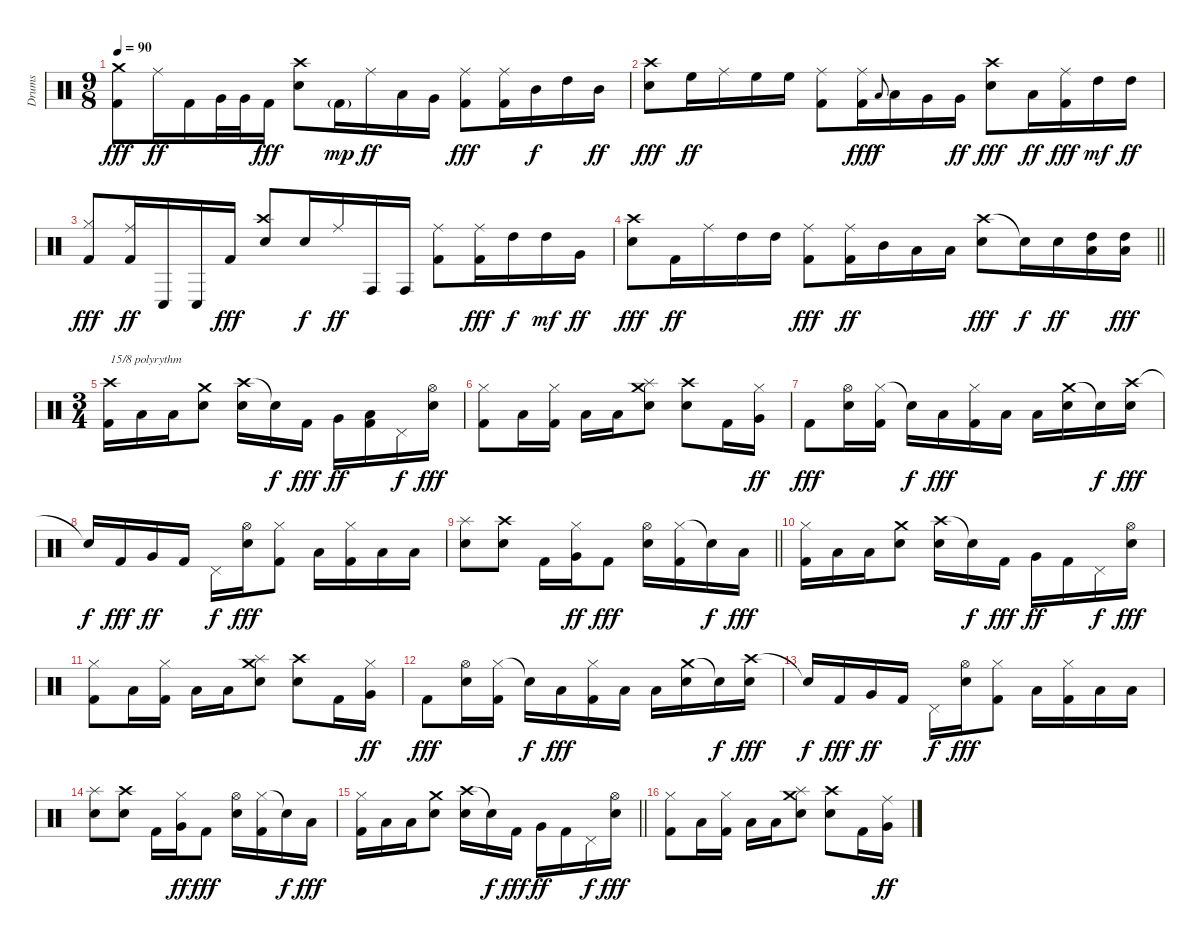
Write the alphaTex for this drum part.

\track ("Drums" "Drums") {instrument percussion}
\staff {score}
\articulation defaults
\ts (9 8)
\tempo 90
\clef neutral
\ks c
("Crash medium (hit)" "Kick (hit) 2").8{dy fff} "Ride (middle)".16{dy ff} "Kick (hit) 2".16 "Very Low Tom (hit)".32 "Very Low Tom (hit)".32 "Kick (hit) 2".16{dy fff} ("Crash high (hit)" "Snare (hit) 2").8 "Kick (hit) 2"{g}.16{dy mp} "Ride (middle)".16{dy ff} "Low Tom (hit)".16 "Very Low Tom (hit)".16 ("Ride (middle)" "Kick (hit) 2").8{dy fff} ("Ride (middle)" "Kick (hit) 2").16 "Mid Tom (hit)".16{dy f} "High Tom (hit)".16 "Mid Tom (hit)".16{dy ff} |
("Crash high (hit)" "Snare (hit) 2").8{dy fff} "High Floor Tom (hit)".16{dy ff} "Ride (middle)".16 "High Floor Tom (hit)".16 "High Floor Tom (hit)".16 ("Ride (middle)" "Kick (hit) 2").8 ("Ride (middle)" "Kick (hit) 2").16{dy fff} "Low Floor Tom (hit)".8{gr onbeat dy f} "Low Floor Tom (hit)".16 "Very Low Tom (hit)".16 "Very Low Tom (hit)".16{dy ff} ("Crash high (hit)" "Snare (hit) 2").8{dy fff} "Low Tom (hit)".16{dy ff} ("Ride (middle)" "Kick (hit) 2").16{dy fff} "High Tom (hit)".16{dy mf} "High Tom (hit)".16{dy ff} |
("Hi-Hat (closed)" "Kick (hit) 2").8{dy fff} ("Ride (middle)" "Kick (hit) 2").16{dy ff} "Conga low (hit)".16 "Conga low (hit)".16 "Kick (hit) 2".16{dy fff} ("Crash high (hit)" "Snare (hit) 2").8 "Snare (hit) 2".16{dy f} "Ride (middle)".16{dy ff} "Conga high (hit)".16 "Conga high (hit)".16 ("Ride (middle)" "Kick (hit) 2").8 ("Ride (middle)" "Kick (hit) 2").16{dy fff} "High Tom (hit)".16{dy f} "High Tom (hit)".16{dy mf} "Very Low Tom (hit)".16{dy ff} |
\barLineRight lightlight
("Crash high (hit)" "Snare (hit) 2").8{dy fff} "Kick (hit) 2".16{dy ff} "Ride (middle)".16 "High Tom (hit)".16 "High Tom (hit)".16 ("Ride (middle)" "Kick (hit) 2").8{dy fff} ("Ride (middle)" "Kick (hit) 2").16{dy ff} "Mid Tom (hit)".16 "Low Tom (hit)".16 "Low Tom (hit)".16 ("Crash high (hit)" "Snare (hit) 2").8{dy fff} "Snare (hit)"{t}.16{dy f} "Snare (hit) 2".16{dy ff} ("High Tom (hit)" "Low Tom (hit)").16 ("High Tom (hit)" "Low Tom (hit)").16{dy fff} |
\ts (3 4)
\section ("" "")
("Crash high (hit)" "Kick (hit) 2").16{txt "15/8 polyrythm"} "Low Tom (hit)".16 "Low Tom (hit)".16 ("Crash medium (hit)" "Snare (hit) 2").8 ("Crash high (hit)" "Snare (hit) 2").16 "Snare (hit)"{t}.16{dy f} "Kick (hit) 2".16{dy fff} "Very Low Tom (hit)".16{dy ff} ("Low Tom (hit)" "Kick (hit) 2").16 "Pedal Hi-Hat (hit)".16{dy f} ("Hi-Hat (open)" "Snare (hit) 2").16{dy fff} |
("Hi-Hat (closed)" "Kick (hit) 2").8 "Low Tom (hit)".16 ("Hi-Hat (closed)" "Kick (hit) 2").16 "Low Tom (hit)".16 "Low Tom (hit)".16 ("Crash medium (hit)" "Splash (hit)" "Snare (hit) 2").8 ("Crash high (hit)" "Snare (hit) 2").8 "Kick (hit) 2".16 ("Hi-Hat (closed)" "Very Low Tom (hit)").16{dy ff} |
"Kick (hit) 2".8{dy fff} ("Hi-Hat (open)" "Snare (hit) 2").16 ("Hi-Hat (closed)" "Kick (hit) 2").16 "Snare (hit)"{t}.16{dy f} "Low Tom (hit)".16{dy fff} ("Hi-Hat (closed)" "Kick (hit) 2").16 "Low Tom (hit)".16 "Low Tom (hit)".16 ("Crash medium (hit)" "Snare (hit) 2").16 "Snare (hit)"{t}.16{dy f} ("Crash high (hit)" "Snare (hit) 2").16{dy fff} |
"Snare (hit)"{t}.16{dy f} "Kick (hit) 2".16{dy fff} "Very Low Tom (hit)".16{dy ff} "Kick (hit) 2".16 "Pedal Hi-Hat (hit)".16{dy f} ("Hi-Hat (open)" "Snare (hit) 2").16{dy fff} ("Hi-Hat (closed)" "Kick (hit) 2").8 "Low Tom (hit)".16 ("Hi-Hat (closed)" "Kick (hit) 2").16 "Low Tom (hit)".16 "Low Tom (hit)".16 |
\barLineRight lightlight
("Splash (hit)" "Snare (hit) 2").8 ("Crash high (hit)" "Snare (hit) 2").8 "Kick (hit) 2".16 ("Hi-Hat (closed)" "Very Low Tom (hit)").16{dy ff} "Kick (hit) 2".8{dy fff} ("Hi-Hat (open)" "Snare (hit) 2").16 ("Hi-Hat (closed)" "Kick (hit) 2").16 "Snare (hit)"{t}.16{dy f} "Low Tom (hit)".16{dy fff} |
("Hi-Hat (closed)" "Kick (hit) 2").16 "Low Tom (hit)".16 "Low Tom (hit)".16 ("Crash medium (hit)" "Snare (hit) 2").8 ("Crash high (hit)" "Snare (hit) 2").16 "Snare (hit)"{t}.16{dy f} "Kick (hit) 2".16{dy fff} "Very Low Tom (hit)".16{dy ff} "Kick (hit) 2".16 "Pedal Hi-Hat (hit)".16{dy f} ("Hi-Hat (open)" "Snare (hit) 2").16{dy fff} |
("Hi-Hat (closed)" "Kick (hit) 2").8 "Low Tom (hit)".16 ("Hi-Hat (closed)" "Kick (hit) 2").16 "Low Tom (hit)".16 "Low Tom (hit)".16 ("Crash medium (hit)" "Splash (hit)" "Snare (hit) 2").8 ("Crash high (hit)" "Snare (hit) 2").8 "Kick (hit) 2".16 ("Hi-Hat (closed)" "Very Low Tom (hit)").16{dy ff} |
"Kick (hit) 2".8{dy fff} ("Hi-Hat (open)" "Snare (hit) 2").16 ("Hi-Hat (closed)" "Kick (hit) 2").16 "Snare (hit)"{t}.16{dy f} "Low Tom (hit)".16{dy fff} ("Hi-Hat (closed)" "Kick (hit) 2").16 "Low Tom (hit)".16 "Low Tom (hit)".16 ("Crash medium (hit)" "Snare (hit) 2").16 "Snare (hit)"{t}.16{dy f} ("Crash high (hit)" "Snare (hit) 2").16{dy fff} |
"Snare (hit)"{t}.16{dy f} "Kick (hit) 2".16{dy fff} "Very Low Tom (hit)".16{dy ff} "Kick (hit) 2".16 "Pedal Hi-Hat (hit)".16{dy f} ("Hi-Hat (open)" "Snare (hit) 2").16{dy fff} ("Hi-Hat (closed)" "Kick (hit) 2").8 "Low Tom (hit)".16 ("Hi-Hat (closed)" "Kick (hit) 2").16 "Low Tom (hit)".16 "Low Tom (hit)".16 |
("Splash (hit)" "Snare (hit) 2").8 ("Crash high (hit)" "Snare (hit) 2").8 "Kick (hit) 2".16 ("Hi-Hat (closed)" "Very Low Tom (hit)").16{dy ff} "Kick (hit) 2".8{dy fff} ("Hi-Hat (open)" "Snare (hit) 2").16 ("Hi-Hat (closed)" "Kick (hit) 2").16 "Snare (hit)"{t}.16{dy f} "Low Tom (hit)".16{dy fff} |
\barLineRight lightlight
("Hi-Hat (closed)" "Kick (hit) 2").16 "Low Tom (hit)".16 "Low Tom (hit)".16 ("Crash medium (hit)" "Snare (hit) 2").8 ("Crash high (hit)" "Snare (hit) 2").16 "Snare (hit)"{t}.16{dy f} "Kick (hit) 2".16{dy fff} "Very Low Tom (hit)".16{dy ff} "Kick (hit) 2".16 "Pedal Hi-Hat (hit)".16{dy f} ("Hi-Hat (open)" "Snare (hit) 2").16{dy fff} |
("Hi-Hat (closed)" "Kick (hit) 2").8 "Low Tom (hit)".16 ("Hi-Hat (closed)" "Kick (hit) 2").16 "Low Tom (hit)".16 "Low Tom (hit)".16 ("Crash medium (hit)" "Splash (hit)" "Snare (hit) 2").8 ("Crash high (hit)" "Snare (hit) 2").8 "Kick (hit) 2".16 ("Ride (middle)" "Very Low Tom (hit)").16{dy ff}
